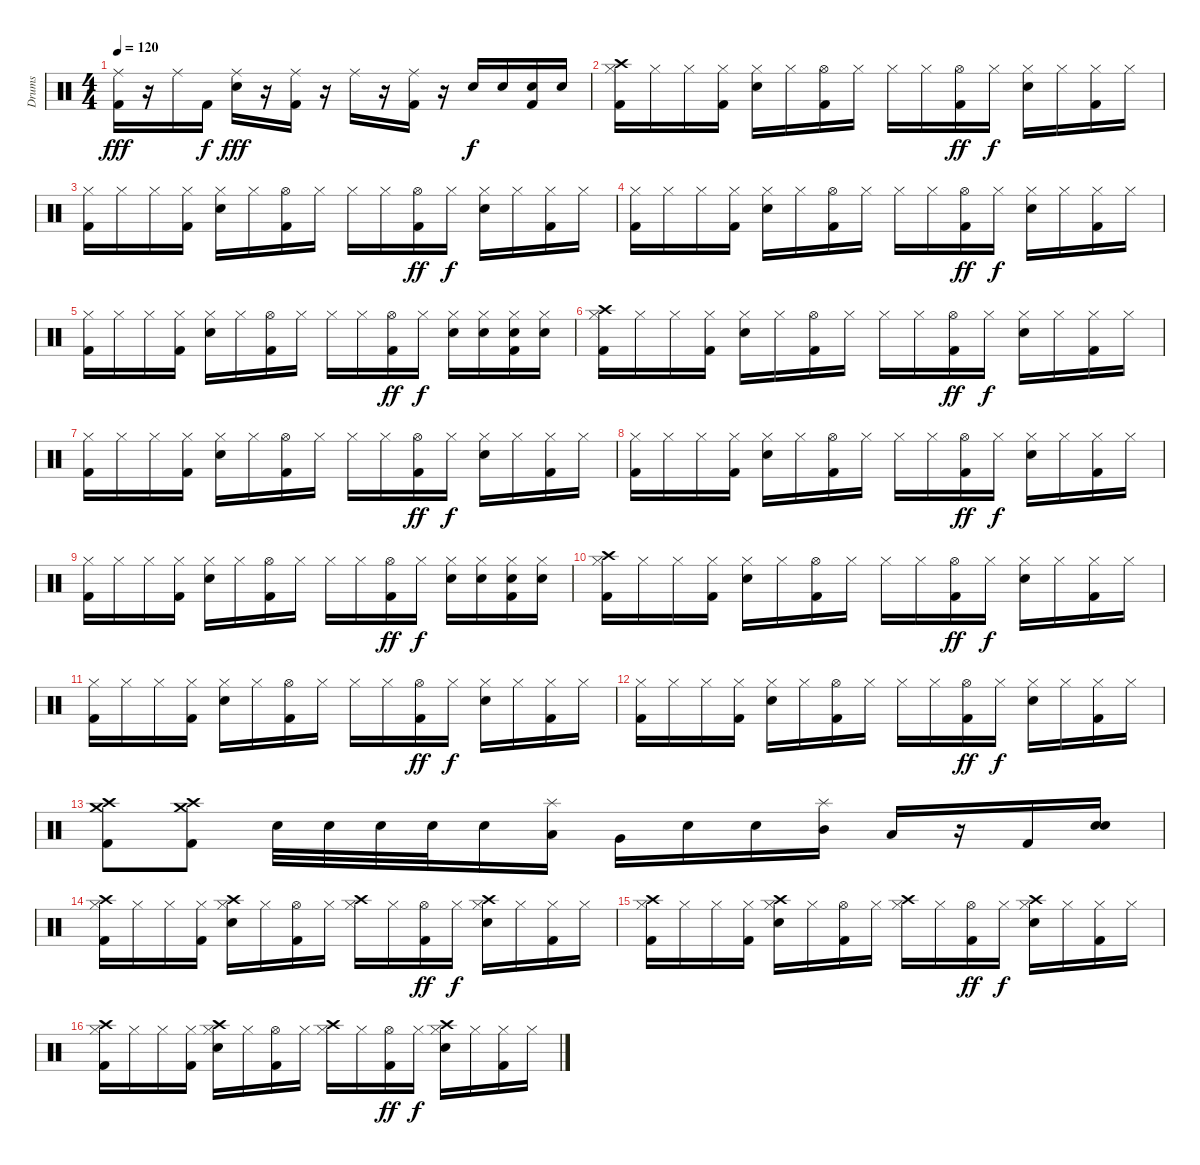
\track ("Drums" "Drums") {instrument percussion}
\staff {score}
\articulation defaults
\ts (4 4)
\tempo 120
\clef neutral
\ks c
("Ride (middle)" "Kick (hit) 2").16{dy fff} r.16 "Ride (middle)".16 "Kick (hit) 2".16{dy f} ("Snare (hit) 2" "Ride (middle)").16{dy fff} r.16 ("Ride (middle)" "Kick (hit) 2").16 r.16 "Ride (middle)".16 r.16 ("Ride (middle)" "Kick (hit) 2").16 r.16 "Electric Snare (hit)".16{dy f} "Electric Snare (hit)".16 ("Electric Snare (hit)" "Kick (hit) 2").16 "Electric Snare (hit)".16 |
("Crash high (hit)" "Hi-Hat (closed)" "Kick (hit) 2").16 "Hi-Hat (closed)".16 "Hi-Hat (closed)".16 ("Hi-Hat (closed)" "Kick (hit) 2").16 ("Snare (hit) 2" "Hi-Hat (closed)").16 "Hi-Hat (closed)".16 ("Hi-Hat (open)" "Kick (hit) 2").16 "Hi-Hat (closed)".16 "Hi-Hat (closed)".16 "Hi-Hat (closed)".16 ("Hi-Hat (open)" "Kick (hit) 2").16{dy ff} "Hi-Hat (closed)".16{dy f} ("Snare (hit) 2" "Hi-Hat (closed)").16 "Hi-Hat (closed)".16 ("Hi-Hat (closed)" "Kick (hit) 2").16 "Hi-Hat (closed)".16 |
("Hi-Hat (closed)" "Kick (hit) 2").16 "Hi-Hat (closed)".16 "Hi-Hat (closed)".16 ("Hi-Hat (closed)" "Kick (hit) 2").16 ("Snare (hit) 2" "Hi-Hat (closed)").16 "Hi-Hat (closed)".16 ("Hi-Hat (open)" "Kick (hit) 2").16 "Hi-Hat (closed)".16 "Hi-Hat (closed)".16 "Hi-Hat (closed)".16 ("Hi-Hat (open)" "Kick (hit) 2").16{dy ff} "Hi-Hat (closed)".16{dy f} ("Snare (hit) 2" "Hi-Hat (closed)").16 "Hi-Hat (closed)".16 ("Hi-Hat (closed)" "Kick (hit) 2").16 "Hi-Hat (closed)".16 |
("Hi-Hat (closed)" "Kick (hit) 2").16 "Hi-Hat (closed)".16 "Hi-Hat (closed)".16 ("Hi-Hat (closed)" "Kick (hit) 2").16 ("Snare (hit) 2" "Hi-Hat (closed)").16 "Hi-Hat (closed)".16 ("Hi-Hat (open)" "Kick (hit) 2").16 "Hi-Hat (closed)".16 "Hi-Hat (closed)".16 "Hi-Hat (closed)".16 ("Hi-Hat (open)" "Kick (hit) 2").16{dy ff} "Hi-Hat (closed)".16{dy f} ("Snare (hit) 2" "Hi-Hat (closed)").16 "Hi-Hat (closed)".16 ("Hi-Hat (closed)" "Kick (hit) 2").16 "Hi-Hat (closed)".16 |
("Hi-Hat (closed)" "Kick (hit) 2").16 "Hi-Hat (closed)".16 "Hi-Hat (closed)".16 ("Hi-Hat (closed)" "Kick (hit) 2").16 ("Snare (hit) 2" "Hi-Hat (closed)").16 "Hi-Hat (closed)".16 ("Hi-Hat (open)" "Kick (hit) 2").16 "Hi-Hat (closed)".16 "Hi-Hat (closed)".16 "Hi-Hat (closed)".16 ("Hi-Hat (open)" "Kick (hit) 2").16{dy ff} "Hi-Hat (closed)".16{dy f} ("Snare (hit) 2" "Hi-Hat (closed)").16 ("Snare (hit) 2" "Hi-Hat (closed)").16 ("Snare (hit) 2" "Hi-Hat (closed)" "Kick (hit) 2").16 ("Snare (hit) 2" "Hi-Hat (closed)").16 |
("Crash high (hit)" "Hi-Hat (closed)" "Kick (hit) 2").16 "Hi-Hat (closed)".16 "Hi-Hat (closed)".16 ("Hi-Hat (closed)" "Kick (hit) 2").16 ("Snare (hit) 2" "Hi-Hat (closed)").16 "Hi-Hat (closed)".16 ("Hi-Hat (open)" "Kick (hit) 2").16 "Hi-Hat (closed)".16 "Hi-Hat (closed)".16 "Hi-Hat (closed)".16 ("Hi-Hat (open)" "Kick (hit) 2").16{dy ff} "Hi-Hat (closed)".16{dy f} ("Snare (hit) 2" "Hi-Hat (closed)").16 "Hi-Hat (closed)".16 ("Hi-Hat (closed)" "Kick (hit) 2").16 "Hi-Hat (closed)".16 |
("Hi-Hat (closed)" "Kick (hit) 2").16 "Hi-Hat (closed)".16 "Hi-Hat (closed)".16 ("Hi-Hat (closed)" "Kick (hit) 2").16 ("Snare (hit) 2" "Hi-Hat (closed)").16 "Hi-Hat (closed)".16 ("Hi-Hat (open)" "Kick (hit) 2").16 "Hi-Hat (closed)".16 "Hi-Hat (closed)".16 "Hi-Hat (closed)".16 ("Hi-Hat (open)" "Kick (hit) 2").16{dy ff} "Hi-Hat (closed)".16{dy f} ("Snare (hit) 2" "Hi-Hat (closed)").16 "Hi-Hat (closed)".16 ("Hi-Hat (closed)" "Kick (hit) 2").16 "Hi-Hat (closed)".16 |
("Hi-Hat (closed)" "Kick (hit) 2").16 "Hi-Hat (closed)".16 "Hi-Hat (closed)".16 ("Hi-Hat (closed)" "Kick (hit) 2").16 ("Snare (hit) 2" "Hi-Hat (closed)").16 "Hi-Hat (closed)".16 ("Hi-Hat (open)" "Kick (hit) 2").16 "Hi-Hat (closed)".16 "Hi-Hat (closed)".16 "Hi-Hat (closed)".16 ("Hi-Hat (open)" "Kick (hit) 2").16{dy ff} "Hi-Hat (closed)".16{dy f} ("Snare (hit) 2" "Hi-Hat (closed)").16 "Hi-Hat (closed)".16 ("Hi-Hat (closed)" "Kick (hit) 2").16 "Hi-Hat (closed)".16 |
("Hi-Hat (closed)" "Kick (hit) 2").16 "Hi-Hat (closed)".16 "Hi-Hat (closed)".16 ("Hi-Hat (closed)" "Kick (hit) 2").16 ("Snare (hit) 2" "Hi-Hat (closed)").16 "Hi-Hat (closed)".16 ("Hi-Hat (open)" "Kick (hit) 2").16 "Hi-Hat (closed)".16 "Hi-Hat (closed)".16 "Hi-Hat (closed)".16 ("Hi-Hat (open)" "Kick (hit) 2").16{dy ff} "Hi-Hat (closed)".16{dy f} ("Snare (hit) 2" "Hi-Hat (closed)").16 ("Snare (hit) 2" "Hi-Hat (closed)").16 ("Snare (hit) 2" "Hi-Hat (closed)" "Kick (hit) 2").16 ("Snare (hit) 2" "Hi-Hat (closed)").16 |
("Crash high (hit)" "Hi-Hat (closed)" "Kick (hit) 2").16 "Hi-Hat (closed)".16 "Hi-Hat (closed)".16 ("Hi-Hat (closed)" "Kick (hit) 2").16 ("Snare (hit) 2" "Hi-Hat (closed)").16 "Hi-Hat (closed)".16 ("Hi-Hat (open)" "Kick (hit) 2").16 "Hi-Hat (closed)".16 "Hi-Hat (closed)".16 "Hi-Hat (closed)".16 ("Hi-Hat (open)" "Kick (hit) 2").16{dy ff} "Hi-Hat (closed)".16{dy f} ("Snare (hit) 2" "Hi-Hat (closed)").16 "Hi-Hat (closed)".16 ("Hi-Hat (closed)" "Kick (hit) 2").16 "Hi-Hat (closed)".16 |
("Hi-Hat (closed)" "Kick (hit) 2").16 "Hi-Hat (closed)".16 "Hi-Hat (closed)".16 ("Hi-Hat (closed)" "Kick (hit) 2").16 ("Snare (hit) 2" "Hi-Hat (closed)").16 "Hi-Hat (closed)".16 ("Hi-Hat (open)" "Kick (hit) 2").16 "Hi-Hat (closed)".16 "Hi-Hat (closed)".16 "Hi-Hat (closed)".16 ("Hi-Hat (open)" "Kick (hit) 2").16{dy ff} "Hi-Hat (closed)".16{dy f} ("Snare (hit) 2" "Hi-Hat (closed)").16 "Hi-Hat (closed)".16 ("Hi-Hat (closed)" "Kick (hit) 2").16 "Hi-Hat (closed)".16 |
("Hi-Hat (closed)" "Kick (hit) 2").16 "Hi-Hat (closed)".16 "Hi-Hat (closed)".16 ("Hi-Hat (closed)" "Kick (hit) 2").16 ("Snare (hit) 2" "Hi-Hat (closed)").16 "Hi-Hat (closed)".16 ("Hi-Hat (open)" "Kick (hit) 2").16 "Hi-Hat (closed)".16 "Hi-Hat (closed)".16 "Hi-Hat (closed)".16 ("Hi-Hat (open)" "Kick (hit) 2").16{dy ff} "Hi-Hat (closed)".16{dy f} ("Snare (hit) 2" "Hi-Hat (closed)").16 "Hi-Hat (closed)".16 ("Hi-Hat (closed)" "Kick (hit) 2").16 "Hi-Hat (closed)".16 |
("Crash high (hit)" "Crash medium (hit)" "Kick (hit) 2").8 ("Crash high (hit)" "Crash medium (hit)" "Kick (hit) 2").8 "Electric Snare (hit)".32 "Electric Snare (hit)".32 "Electric Snare (hit)".32 "Electric Snare (hit)".32 "Electric Snare (hit)".16 ("Splash (hit)" "Low Tom (hit)").16 "Very Low Tom (hit)".16 "Electric Snare (hit)".16 "Electric Snare (hit)".16 ("Splash (hit)" "Mid Tom (hit)").16 "Low Tom (hit)".16 r.16 "Kick (hit) 2".16 ("Electric Snare (hit)" "Electric Snare (hit)").16 |
("Crash high (hit)" "Hi-Hat (closed)" "Kick (hit) 2").16 "Hi-Hat (closed)".16 "Hi-Hat (closed)".16 ("Hi-Hat (closed)" "Kick (hit) 2").16 ("Crash high (hit)" "Snare (hit) 2" "Hi-Hat (closed)").16 "Hi-Hat (closed)".16 ("Hi-Hat (open)" "Kick (hit) 2").16 "Hi-Hat (closed)".16 ("Crash high (hit)" "Hi-Hat (closed)").16 "Hi-Hat (closed)".16 ("Hi-Hat (open)" "Kick (hit) 2").16{dy ff} "Hi-Hat (closed)".16{dy f} ("Crash high (hit)" "Snare (hit) 2" "Hi-Hat (closed)").16 "Hi-Hat (closed)".16 ("Hi-Hat (closed)" "Kick (hit) 2").16 "Hi-Hat (closed)".16 |
("Crash high (hit)" "Hi-Hat (closed)" "Kick (hit) 2").16 "Hi-Hat (closed)".16 "Hi-Hat (closed)".16 ("Hi-Hat (closed)" "Kick (hit) 2").16 ("Crash high (hit)" "Snare (hit) 2" "Hi-Hat (closed)").16 "Hi-Hat (closed)".16 ("Hi-Hat (open)" "Kick (hit) 2").16 "Hi-Hat (closed)".16 ("Crash high (hit)" "Hi-Hat (closed)").16 "Hi-Hat (closed)".16 ("Hi-Hat (open)" "Kick (hit) 2").16{dy ff} "Hi-Hat (closed)".16{dy f} ("Crash high (hit)" "Snare (hit) 2" "Hi-Hat (closed)").16 "Hi-Hat (closed)".16 ("Hi-Hat (closed)" "Kick (hit) 2").16 "Hi-Hat (closed)".16 |
("Crash high (hit)" "Hi-Hat (closed)" "Kick (hit) 2").16 "Hi-Hat (closed)".16 "Hi-Hat (closed)".16 ("Hi-Hat (closed)" "Kick (hit) 2").16 ("Crash high (hit)" "Snare (hit) 2" "Hi-Hat (closed)").16 "Hi-Hat (closed)".16 ("Hi-Hat (open)" "Kick (hit) 2").16 "Hi-Hat (closed)".16 ("Crash high (hit)" "Hi-Hat (closed)").16 "Hi-Hat (closed)".16 ("Hi-Hat (open)" "Kick (hit) 2").16{dy ff} "Hi-Hat (closed)".16{dy f} ("Crash high (hit)" "Snare (hit) 2" "Hi-Hat (closed)").16 "Hi-Hat (closed)".16 ("Hi-Hat (closed)" "Kick (hit) 2").16 "Hi-Hat (closed)".16
